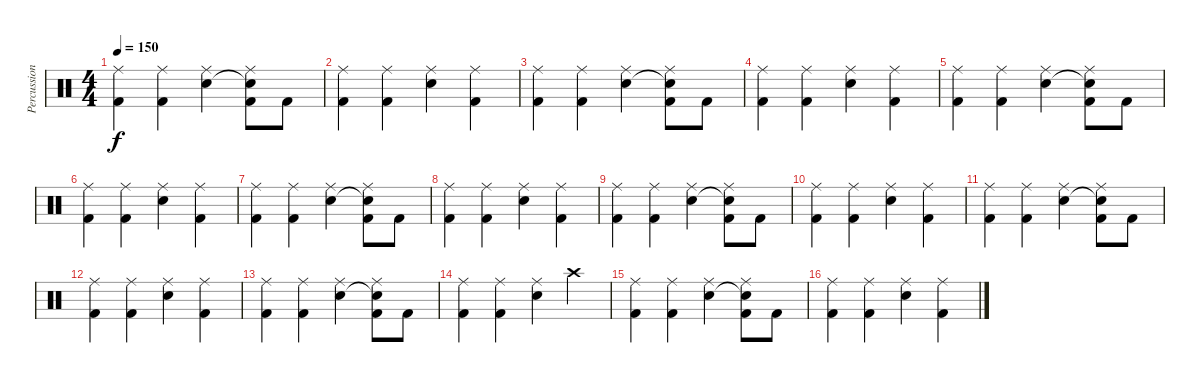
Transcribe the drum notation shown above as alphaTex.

\track ("Percussions" "Percussion") {instrument percussion}
\staff {score}
\articulation defaults
\ts (4 4)
\tempo 150
\clef neutral
\ks c
("Ride (middle)" "Kick (hit) 2").4{dy f} ("Ride (middle)" "Kick (hit) 2").4 ("Ride (middle)" "Electric Snare (hit)").4 ("Ride (middle)" "Snare (hit)"{t} "Kick (hit) 2").8 "Kick (hit) 2".8 |
("Ride (middle)" "Kick (hit) 2").4 ("Ride (middle)" "Kick (hit) 2").4 ("Ride (middle)" "Electric Snare (hit)").4 ("Ride (middle)" "Kick (hit) 2").4 |
("Ride (middle)" "Kick (hit) 2").4 ("Ride (middle)" "Kick (hit) 2").4 ("Ride (middle)" "Electric Snare (hit)").4 ("Ride (middle)" "Snare (hit)"{t} "Kick (hit) 2").8 "Kick (hit) 2".8 |
("Ride (middle)" "Kick (hit) 2").4 ("Ride (middle)" "Kick (hit) 2").4 ("Ride (middle)" "Electric Snare (hit)").4 ("Ride (middle)" "Kick (hit) 2").4 |
("Ride (middle)" "Kick (hit) 2").4 ("Ride (middle)" "Kick (hit) 2").4 ("Ride (middle)" "Electric Snare (hit)").4 ("Ride (middle)" "Snare (hit)"{t} "Kick (hit) 2").8 "Kick (hit) 2".8 |
("Ride (middle)" "Kick (hit) 2").4 ("Ride (middle)" "Kick (hit) 2").4 ("Ride (middle)" "Electric Snare (hit)").4 ("Ride (middle)" "Kick (hit) 2").4 |
("Ride (middle)" "Kick (hit) 2").4 ("Ride (middle)" "Kick (hit) 2").4 ("Ride (middle)" "Electric Snare (hit)").4 ("Ride (middle)" "Snare (hit)"{t} "Kick (hit) 2").8 "Kick (hit) 2".8 |
("Ride (middle)" "Kick (hit) 2").4 ("Ride (middle)" "Kick (hit) 2").4 ("Ride (middle)" "Electric Snare (hit)").4 ("Ride (middle)" "Kick (hit) 2").4 |
("Ride (middle)" "Kick (hit) 2").4 ("Ride (middle)" "Kick (hit) 2").4 ("Ride (middle)" "Electric Snare (hit)").4 ("Ride (middle)" "Snare (hit)"{t} "Kick (hit) 2").8 "Kick (hit) 2".8 |
("Ride (middle)" "Kick (hit) 2").4 ("Ride (middle)" "Kick (hit) 2").4 ("Ride (middle)" "Electric Snare (hit)").4 ("Ride (middle)" "Kick (hit) 2").4 |
("Ride (middle)" "Kick (hit) 2").4 ("Ride (middle)" "Kick (hit) 2").4 ("Ride (middle)" "Electric Snare (hit)").4 ("Ride (middle)" "Snare (hit)"{t} "Kick (hit) 2").8 "Kick (hit) 2".8 |
("Ride (middle)" "Kick (hit) 2").4 ("Ride (middle)" "Kick (hit) 2").4 ("Ride (middle)" "Electric Snare (hit)").4 ("Ride (middle)" "Kick (hit) 2").4 |
("Ride (middle)" "Kick (hit) 2").4 ("Ride (middle)" "Kick (hit) 2").4 ("Ride (middle)" "Electric Snare (hit)").4 ("Ride (middle)" "Snare (hit)"{t} "Kick (hit) 2").8 "Kick (hit) 2".8 |
("Ride (middle)" "Kick (hit) 2").4 ("Ride (middle)" "Kick (hit) 2").4 ("Ride (middle)" "Electric Snare (hit)").4 "Crash high (hit)".4 |
("Ride (middle)" "Kick (hit) 2").4 ("Ride (middle)" "Kick (hit) 2").4 ("Ride (middle)" "Electric Snare (hit)").4 ("Ride (middle)" "Snare (hit)"{t} "Kick (hit) 2").8 "Kick (hit) 2".8 |
("Ride (middle)" "Kick (hit) 2").4 ("Ride (middle)" "Kick (hit) 2").4 ("Ride (middle)" "Electric Snare (hit)").4 ("Ride (middle)" "Kick (hit) 2").4
